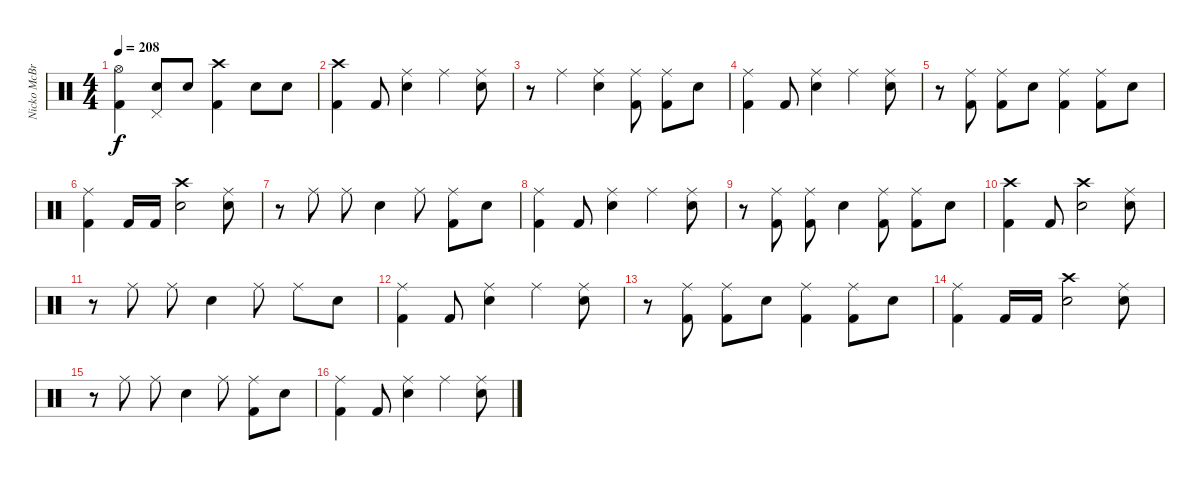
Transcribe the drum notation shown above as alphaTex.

\track ("Nicko McBrain" "Nicko McBr") {instrument percussion}
\staff {score}
\articulation defaults
\ts (4 4)
\tempo 208
\clef neutral
\ks c
("Hi-Hat (open)" "Kick (hit) 2").4{dy f} ("Pedal Hi-Hat (hit)" "Electric Snare (hit)").8 "Electric Snare (hit)".8 ("Crash high (hit)" "Kick (hit) 2").4 "Electric Snare (hit)".8 "Electric Snare (hit)".8 |
("Crash high (hit)" "Kick (hit) 2").4 "Kick (hit) 2".8 ("Ride (middle)" "Electric Snare (hit)").4 "Ride (middle)".4 ("Ride (middle)" "Electric Snare (hit)").8 |
r.8 "Ride (middle)".4 ("Ride (middle)" "Electric Snare (hit)").4 ("Ride (middle)" "Kick (hit) 2").8 ("Ride (middle)" "Kick (hit) 2").8 "Electric Snare (hit)".8 |
("Ride (middle)" "Kick (hit) 2").4 "Kick (hit) 2".8 ("Ride (middle)" "Electric Snare (hit)").4 "Ride (middle)".4 ("Ride (middle)" "Electric Snare (hit)").8 |
r.8 ("Ride (middle)" "Kick (hit) 2").8 ("Ride (middle)" "Kick (hit) 2").8 "Electric Snare (hit)".8 ("Ride (middle)" "Kick (hit) 2").4 ("Ride (middle)" "Kick (hit) 2").8 "Electric Snare (hit)".8 |
("Ride (middle)" "Kick (hit) 2").4 "Kick (hit) 2".16 "Kick (hit) 2".16 ("Crash high (hit)" "Electric Snare (hit)").2 ("Ride (middle)" "Electric Snare (hit)").8 |
r.8 "Ride (middle)".8 "Ride (middle)".8 "Electric Snare (hit)".4 "Ride (middle)".8 ("Ride (middle)" "Kick (hit) 2").8 "Electric Snare (hit)".8 |
("Ride (middle)" "Kick (hit) 2").4 "Kick (hit) 2".8 ("Ride (middle)" "Electric Snare (hit)").4 "Ride (middle)".4 ("Ride (middle)" "Electric Snare (hit)").8 |
r.8 ("Ride (middle)" "Kick (hit) 2").8 ("Ride (middle)" "Kick (hit) 2").8 "Electric Snare (hit)".4 ("Ride (middle)" "Kick (hit) 2").8 ("Ride (middle)" "Kick (hit) 2").8 "Electric Snare (hit)".8 |
("Crash high (hit)" "Kick (hit) 2").4 "Kick (hit) 2".8 ("Crash high (hit)" "Electric Snare (hit)").2 ("Ride (middle)" "Electric Snare (hit)").8 |
r.8 "Ride (middle)".8 "Ride (middle)".8 "Electric Snare (hit)".4 "Ride (middle)".8 "Ride (middle)".8 "Electric Snare (hit)".8 |
("Ride (middle)" "Kick (hit) 2").4 "Kick (hit) 2".8 ("Ride (middle)" "Electric Snare (hit)").4 "Ride (middle)".4 ("Ride (middle)" "Electric Snare (hit)").8 |
r.8 ("Ride (middle)" "Kick (hit) 2").8 ("Ride (middle)" "Kick (hit) 2").8 "Electric Snare (hit)".8 ("Ride (middle)" "Kick (hit) 2").4 ("Ride (middle)" "Kick (hit) 2").8 "Electric Snare (hit)".8 |
("Ride (middle)" "Kick (hit) 2").4 "Kick (hit) 2".16 "Kick (hit) 2".16 ("Crash high (hit)" "Electric Snare (hit)").2 ("Ride (middle)" "Electric Snare (hit)").8 |
r.8 "Ride (middle)".8 "Ride (middle)".8 "Electric Snare (hit)".4 "Ride (middle)".8 ("Ride (middle)" "Kick (hit) 2").8 "Electric Snare (hit)".8 |
("Ride (middle)" "Kick (hit) 2").4 "Kick (hit) 2".8 ("Ride (middle)" "Electric Snare (hit)").4 "Ride (middle)".4 ("Ride (middle)" "Electric Snare (hit)").8
